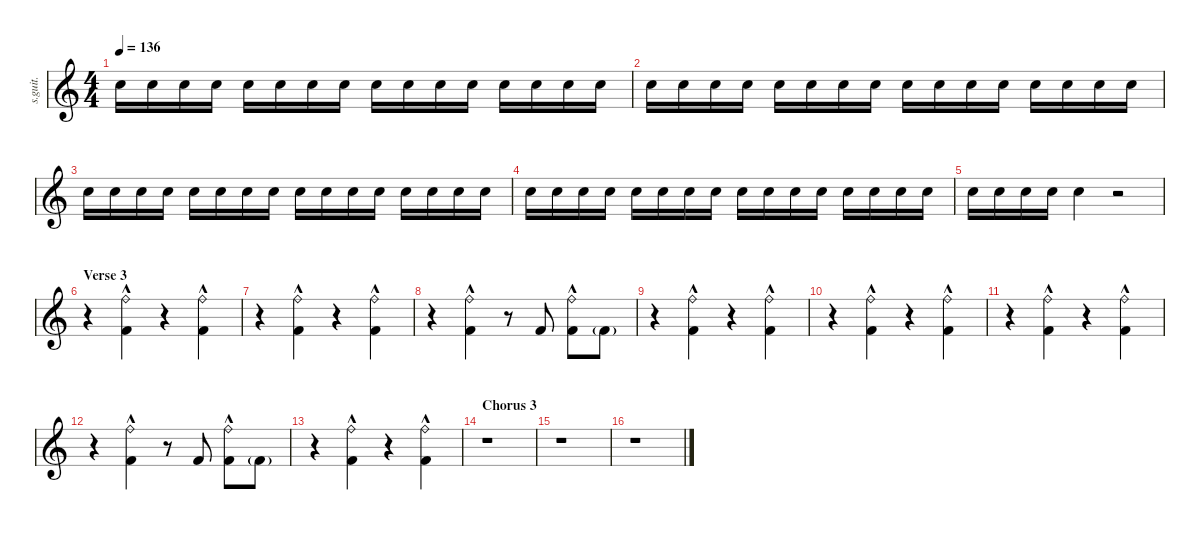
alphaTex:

\defaultSystemsLayout 4
\hideDynamics
\bracketExtendMode nobrackets
\track ("Chris Fehn" "s.guit.") {instrument percussion}
\staff {score}
\articulation defaults
\ts (4 4)
\tempo 136
\clef g2
\ks c "Snare (hit) 2".16{lyrics (0 "") lyrics (1 "") lyrics (2 "") lyrics (3 "") lyrics (4 "") dy mp} "Snare (hit) 2".16{lyrics (0 "") lyrics (1 "") lyrics (2 "") lyrics (3 "") lyrics (4 "")} "Snare (hit) 2".16{lyrics (0 "") lyrics (1 "") lyrics (2 "") lyrics (3 "") lyrics (4 "")} "Snare (hit) 2".16{lyrics (0 "") lyrics (1 "") lyrics (2 "") lyrics (3 "") lyrics (4 "")} "Snare (hit) 2".16{lyrics (0 "") lyrics (1 "") lyrics (2 "") lyrics (3 "") lyrics (4 "")} "Snare (hit) 2".16{lyrics (0 "") lyrics (1 "") lyrics (2 "") lyrics (3 "") lyrics (4 "")} "Snare (hit) 2".16{lyrics (0 "") lyrics (1 "") lyrics (2 "") lyrics (3 "") lyrics (4 "")} "Snare (hit) 2".16{lyrics (0 "") lyrics (1 "") lyrics (2 "") lyrics (3 "") lyrics (4 "")} "Snare (hit) 2".16{lyrics (0 "") lyrics (1 "") lyrics (2 "") lyrics (3 "") lyrics (4 "")} "Snare (hit) 2".16{lyrics (0 "") lyrics (1 "") lyrics (2 "") lyrics (3 "") lyrics (4 "")} "Snare (hit) 2".16{lyrics (0 "") lyrics (1 "") lyrics (2 "") lyrics (3 "") lyrics (4 "")} "Snare (hit) 2".16{lyrics (0 "") lyrics (1 "") lyrics (2 "") lyrics (3 "") lyrics (4 "")} "Snare (hit) 2".16{lyrics (0 "") lyrics (1 "") lyrics (2 "") lyrics (3 "") lyrics (4 "")} "Snare (hit) 2".16{lyrics (0 "") lyrics (1 "") lyrics (2 "") lyrics (3 "") lyrics (4 "")} "Snare (hit) 2".16{lyrics (0 "") lyrics (1 "") lyrics (2 "") lyrics (3 "") lyrics (4 "")} "Snare (hit) 2".16{lyrics (0 "") lyrics (1 "") lyrics (2 "") lyrics (3 "") lyrics (4 "")}
|
"Snare (hit) 2".16{lyrics (0 "") lyrics (1 "") lyrics (2 "") lyrics (3 "") lyrics (4 "")} "Snare (hit) 2".16{lyrics (0 "") lyrics (1 "") lyrics (2 "") lyrics (3 "") lyrics (4 "")} "Snare (hit) 2".16{lyrics (0 "") lyrics (1 "") lyrics (2 "") lyrics (3 "") lyrics (4 "")} "Snare (hit) 2".16{lyrics (0 "") lyrics (1 "") lyrics (2 "") lyrics (3 "") lyrics (4 "")} "Snare (hit) 2".16{lyrics (0 "") lyrics (1 "") lyrics (2 "") lyrics (3 "") lyrics (4 "")} "Snare (hit) 2".16{lyrics (0 "") lyrics (1 "") lyrics (2 "") lyrics (3 "") lyrics (4 "")} "Snare (hit) 2".16{lyrics (0 "") lyrics (1 "") lyrics (2 "") lyrics (3 "") lyrics (4 "")} "Snare (hit) 2".16{lyrics (0 "") lyrics (1 "") lyrics (2 "") lyrics (3 "") lyrics (4 "")} "Snare (hit) 2".16{lyrics (0 "") lyrics (1 "") lyrics (2 "") lyrics (3 "") lyrics (4 "")} "Snare (hit) 2".16{lyrics (0 "") lyrics (1 "") lyrics (2 "") lyrics (3 "") lyrics (4 "")} "Snare (hit) 2".16{lyrics (0 "") lyrics (1 "") lyrics (2 "") lyrics (3 "") lyrics (4 "")} "Snare (hit) 2".16{lyrics (0 "") lyrics (1 "") lyrics (2 "") lyrics (3 "") lyrics (4 "")} "Snare (hit) 2".16{lyrics (0 "") lyrics (1 "") lyrics (2 "") lyrics (3 "") lyrics (4 "")} "Snare (hit) 2".16{lyrics (0 "") lyrics (1 "") lyrics (2 "") lyrics (3 "") lyrics (4 "")} "Snare (hit) 2".16{lyrics (0 "") lyrics (1 "") lyrics (2 "") lyrics (3 "") lyrics (4 "")} "Snare (hit) 2".16{lyrics (0 "") lyrics (1 "") lyrics (2 "") lyrics (3 "") lyrics (4 "")} |
"Snare (hit) 2".16{lyrics (0 "") lyrics (1 "") lyrics (2 "") lyrics (3 "") lyrics (4 "")} "Snare (hit) 2".16{lyrics (0 "") lyrics (1 "") lyrics (2 "") lyrics (3 "") lyrics (4 "")} "Snare (hit) 2".16{lyrics (0 "") lyrics (1 "") lyrics (2 "") lyrics (3 "") lyrics (4 "")} "Snare (hit) 2".16{lyrics (0 "") lyrics (1 "") lyrics (2 "") lyrics (3 "") lyrics (4 "")} "Snare (hit) 2".16{lyrics (0 "") lyrics (1 "") lyrics (2 "") lyrics (3 "") lyrics (4 "")} "Snare (hit) 2".16{lyrics (0 "") lyrics (1 "") lyrics (2 "") lyrics (3 "") lyrics (4 "")} "Snare (hit) 2".16{lyrics (0 "") lyrics (1 "") lyrics (2 "") lyrics (3 "") lyrics (4 "")} "Snare (hit) 2".16{lyrics (0 "") lyrics (1 "") lyrics (2 "") lyrics (3 "") lyrics (4 "")} "Snare (hit) 2".16{lyrics (0 "") lyrics (1 "") lyrics (2 "") lyrics (3 "") lyrics (4 "")} "Snare (hit) 2".16{lyrics (0 "") lyrics (1 "") lyrics (2 "") lyrics (3 "") lyrics (4 "")} "Snare (hit) 2".16{lyrics (0 "") lyrics (1 "") lyrics (2 "") lyrics (3 "") lyrics (4 "")} "Snare (hit) 2".16{lyrics (0 "") lyrics (1 "") lyrics (2 "") lyrics (3 "") lyrics (4 "")} "Snare (hit) 2".16{lyrics (0 "") lyrics (1 "") lyrics (2 "") lyrics (3 "") lyrics (4 "")} "Snare (hit) 2".16{lyrics (0 "") lyrics (1 "") lyrics (2 "") lyrics (3 "") lyrics (4 "")} "Snare (hit) 2".16{lyrics (0 "") lyrics (1 "") lyrics (2 "") lyrics (3 "") lyrics (4 "")} "Snare (hit) 2".16{lyrics (0 "") lyrics (1 "") lyrics (2 "") lyrics (3 "") lyrics (4 "")} |
"Snare (hit) 2".16{lyrics (0 "") lyrics (1 "") lyrics (2 "") lyrics (3 "") lyrics (4 "")} "Snare (hit) 2".16{lyrics (0 "") lyrics (1 "") lyrics (2 "") lyrics (3 "") lyrics (4 "")} "Snare (hit) 2".16{lyrics (0 "") lyrics (1 "") lyrics (2 "") lyrics (3 "") lyrics (4 "")} "Snare (hit) 2".16{lyrics (0 "") lyrics (1 "") lyrics (2 "") lyrics (3 "") lyrics (4 "")} "Snare (hit) 2".16{lyrics (0 "") lyrics (1 "") lyrics (2 "") lyrics (3 "") lyrics (4 "")} "Snare (hit) 2".16{lyrics (0 "") lyrics (1 "") lyrics (2 "") lyrics (3 "") lyrics (4 "")} "Snare (hit) 2".16{lyrics (0 "") lyrics (1 "") lyrics (2 "") lyrics (3 "") lyrics (4 "")} "Snare (hit) 2".16{lyrics (0 "") lyrics (1 "") lyrics (2 "") lyrics (3 "") lyrics (4 "")} "Snare (hit) 2".16{lyrics (0 "") lyrics (1 "") lyrics (2 "") lyrics (3 "") lyrics (4 "")} "Snare (hit) 2".16{lyrics (0 "") lyrics (1 "") lyrics (2 "") lyrics (3 "") lyrics (4 "")} "Snare (hit) 2".16{lyrics (0 "") lyrics (1 "") lyrics (2 "") lyrics (3 "") lyrics (4 "")} "Snare (hit) 2".16{lyrics (0 "") lyrics (1 "") lyrics (2 "") lyrics (3 "") lyrics (4 "")} "Snare (hit) 2".16{lyrics (0 "") lyrics (1 "") lyrics (2 "") lyrics (3 "") lyrics (4 "")} "Snare (hit) 2".16{lyrics (0 "") lyrics (1 "") lyrics (2 "") lyrics (3 "") lyrics (4 "")} "Snare (hit) 2".16{lyrics (0 "") lyrics (1 "") lyrics (2 "") lyrics (3 "") lyrics (4 "")} "Snare (hit) 2".16{lyrics (0 "") lyrics (1 "") lyrics (2 "") lyrics (3 "") lyrics (4 "")} |
"Snare (hit) 2".16{lyrics (0 "") lyrics (1 "") lyrics (2 "") lyrics (3 "") lyrics (4 "")} "Snare (hit) 2".16{lyrics (0 "") lyrics (1 "") lyrics (2 "") lyrics (3 "") lyrics (4 "")} "Snare (hit) 2".16{lyrics (0 "") lyrics (1 "") lyrics (2 "") lyrics (3 "") lyrics (4 "")} "Snare (hit) 2".16{lyrics (0 "") lyrics (1 "") lyrics (2 "") lyrics (3 "") lyrics (4 "")} "Snare (hit) 2".4{lyrics (0 "") lyrics (1 "") lyrics (2 "") lyrics (3 "") lyrics (4 "")} r.2 |
\section ("" "Verse 3")
r.4 ("Ride (bell)"{hac} "Kick (hit) 2"{hac}).4{lyrics (0 "") lyrics (1 "") lyrics (2 "") lyrics (3 "") lyrics (4 "") dy fff} r.4 ("Ride (bell)"{hac} "Kick (hit) 2"{hac}).4{lyrics (0 "") lyrics (1 "") lyrics (2 "") lyrics (3 "") lyrics (4 "")} |
r.4 ("Ride (bell)"{hac} "Kick (hit) 2"{hac}).4{lyrics (0 "") lyrics (1 "") lyrics (2 "") lyrics (3 "") lyrics (4 "")} r.4 ("Ride (bell)"{hac} "Kick (hit) 2"{hac}).4{lyrics (0 "") lyrics (1 "") lyrics (2 "") lyrics (3 "") lyrics (4 "")} |
r.4 ("Ride (bell)"{hac} "Kick (hit) 2"{hac}).4{lyrics (0 "") lyrics (1 "") lyrics (2 "") lyrics (3 "") lyrics (4 "")} r.8 "Kick (hit) 2".8{lyrics (0 "") lyrics (1 "") lyrics (2 "") lyrics (3 "") lyrics (4 "")} ("Ride (bell)"{hac} "Kick (hit) 2"{hac}).8{lyrics (0 "") lyrics (1 "") lyrics (2 "") lyrics (3 "") lyrics (4 "")} "Kick (hit) 2"{g}.8{lyrics (0 "") lyrics (1 "") lyrics (2 "") lyrics (3 "") lyrics (4 "")} |
r.4 ("Ride (bell)"{hac} "Kick (hit) 2"{hac}).4{lyrics (0 "") lyrics (1 "") lyrics (2 "") lyrics (3 "") lyrics (4 "")} r.4 ("Ride (bell)"{hac} "Kick (hit) 2"{hac}).4{lyrics (0 "") lyrics (1 "") lyrics (2 "") lyrics (3 "") lyrics (4 "")} |
r.4 ("Ride (bell)"{hac} "Kick (hit) 2"{hac}).4{lyrics (0 "") lyrics (1 "") lyrics (2 "") lyrics (3 "") lyrics (4 "")} r.4 ("Ride (bell)"{hac} "Kick (hit) 2"{hac}).4{lyrics (0 "") lyrics (1 "") lyrics (2 "") lyrics (3 "") lyrics (4 "")} |
r.4 ("Ride (bell)"{hac} "Kick (hit) 2"{hac}).4{lyrics (0 "") lyrics (1 "") lyrics (2 "") lyrics (3 "") lyrics (4 "")} r.4 ("Ride (bell)"{hac} "Kick (hit) 2"{hac}).4{lyrics (0 "") lyrics (1 "") lyrics (2 "") lyrics (3 "") lyrics (4 "")} |
r.4 ("Ride (bell)"{hac} "Kick (hit) 2"{hac}).4{lyrics (0 "") lyrics (1 "") lyrics (2 "") lyrics (3 "") lyrics (4 "")} r.8 "Kick (hit) 2".8{lyrics (0 "") lyrics (1 "") lyrics (2 "") lyrics (3 "") lyrics (4 "")} ("Ride (bell)"{hac} "Kick (hit) 2"{hac}).8{lyrics (0 "") lyrics (1 "") lyrics (2 "") lyrics (3 "") lyrics (4 "")} "Kick (hit) 2"{g}.8{lyrics (0 "") lyrics (1 "") lyrics (2 "") lyrics (3 "") lyrics (4 "")} |
r.4 ("Ride (bell)"{hac} "Kick (hit) 2"{hac}).4{lyrics (0 "") lyrics (1 "") lyrics (2 "") lyrics (3 "") lyrics (4 "")} r.4 ("Ride (bell)"{hac} "Kick (hit) 2"{hac}).4{lyrics (0 "") lyrics (1 "") lyrics (2 "") lyrics (3 "") lyrics (4 "")} |
\section ("" "Chorus 3")
r.1 |
r.1 |
r.1
